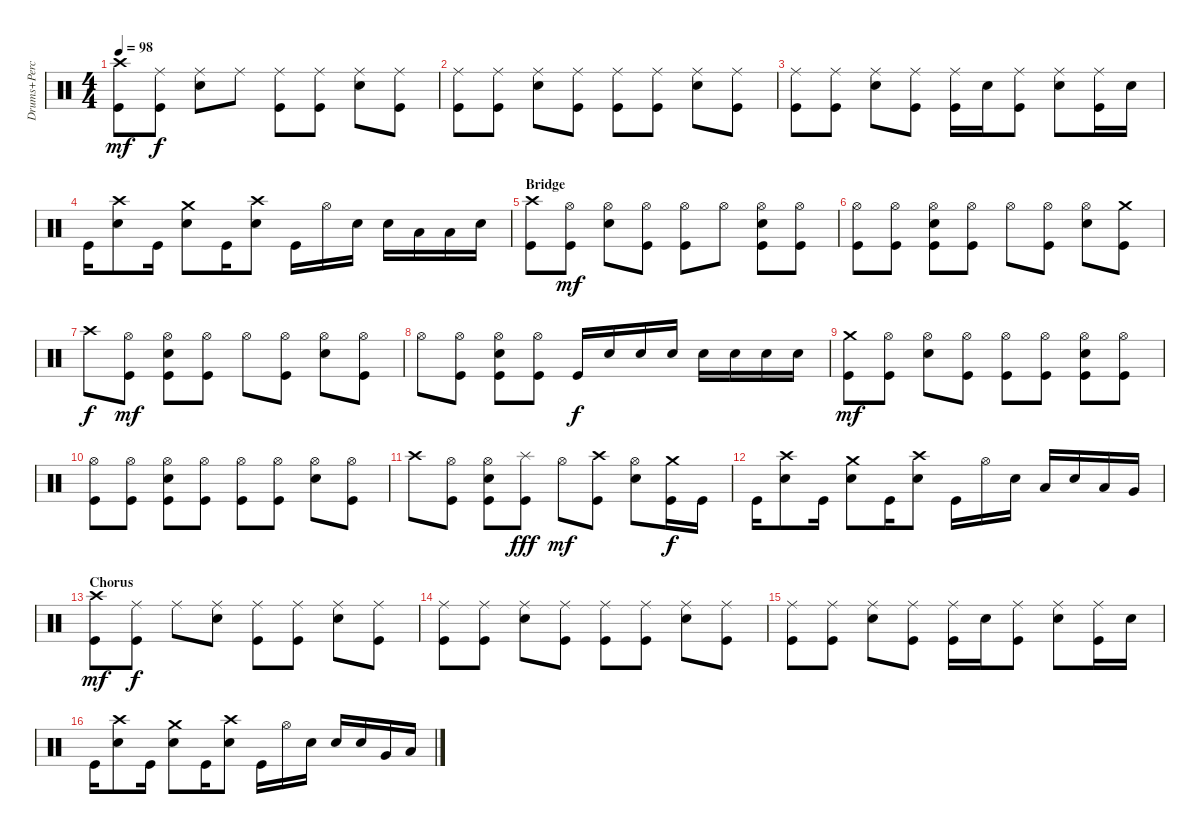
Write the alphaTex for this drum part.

\track ("Drums+Percussion" "Drums+Perc") {instrument percussion}
\staff {score}
\articulation defaults
\ts (4 4)
\tempo 98
\clef neutral
\ks c
("Kick (hit)" "Crash high (hit)").8{dy mf} ("Kick (hit)" "Ride (middle)").8{dy f} ("Snare (hit) 2" "Ride (middle)").8 "Ride (middle)".8 ("Kick (hit)" "Ride (middle)").8 ("Kick (hit)" "Ride (middle)").8 ("Snare (hit) 2" "Ride (middle)").8 ("Kick (hit)" "Ride (middle)").8 |
("Kick (hit)" "Ride (middle)").8 ("Kick (hit)" "Ride (middle)").8 ("Snare (hit) 2" "Ride (middle)").8 ("Kick (hit)" "Ride (middle)").8 ("Kick (hit)" "Ride (middle)").8 ("Kick (hit)" "Ride (middle)").8 ("Snare (hit) 2" "Ride (middle)").8 ("Kick (hit)" "Ride (middle)").8 |
("Kick (hit)" "Ride (middle)").8 ("Kick (hit)" "Ride (middle)").8 ("Snare (hit) 2" "Ride (middle)").8 ("Kick (hit)" "Ride (middle)").8 ("Kick (hit)" "Ride (middle)").16 "Snare (hit) 2".16 ("Kick (hit)" "Ride (middle)").8 ("Snare (hit) 2" "Ride (middle)").8 ("Kick (hit)" "Ride (middle)").16 "Snare (hit) 2".16 |
"Kick (hit)".16 ("Snare (hit) 2" "Crash high (hit)").8 "Kick (hit)".16 ("Snare (hit) 2" "Crash medium (hit)").8 "Kick (hit)".16 ("Snare (hit) 2" "Crash high (hit)").8 "Kick (hit)".16 "Hi-Hat (open)".16 "Snare (hit) 2".16 "Snare (hit) 2".16 "Low Tom (hit)".16 "Low Tom (hit)".16 "Snare (hit) 2".16 |
\section ("" "Bridge")
("Kick (hit)" "Crash high (hit)").8 ("Kick (hit)" "Hi-Hat (open)").8{dy mf} ("Snare (hit) 2" "Hi-Hat (open)").8 ("Kick (hit)" "Hi-Hat (open)").8 ("Kick (hit)" "Hi-Hat (open)").8 "Hi-Hat (open)".8 ("Kick (hit)" "Snare (hit) 2" "Hi-Hat (open)").8 ("Kick (hit)" "Hi-Hat (open)").8 |
("Kick (hit)" "Hi-Hat (open)").8 ("Kick (hit)" "Hi-Hat (open)").8 ("Kick (hit)" "Snare (hit) 2" "Hi-Hat (open)").8 ("Kick (hit)" "Hi-Hat (open)").8 "Hi-Hat (open)".8 ("Kick (hit)" "Hi-Hat (open)").8 ("Snare (hit) 2" "Hi-Hat (open)").8 ("Kick (hit)" "Crash medium (hit)").8 |
"Crash high (hit)".8{dy f} ("Kick (hit)" "Hi-Hat (open)").8{dy mf} ("Kick (hit)" "Snare (hit) 2" "Hi-Hat (open)").8 ("Kick (hit)" "Hi-Hat (open)").8 "Hi-Hat (open)".8 ("Kick (hit)" "Hi-Hat (open)").8 ("Snare (hit) 2" "Hi-Hat (open)").8 ("Kick (hit)" "Hi-Hat (open)").8 |
"Hi-Hat (open)".8 ("Kick (hit)" "Hi-Hat (open)").8 ("Kick (hit)" "Snare (hit) 2" "Hi-Hat (open)").8 ("Kick (hit)" "Hi-Hat (open)").8 "Kick (hit)".16{dy f} "Snare (hit) 2".16 "Snare (hit) 2".16 "Snare (hit) 2".16 "Snare (hit) 2".16 "Snare (hit) 2".16 "Snare (hit) 2".16 "Snare (hit) 2".16 |
("Kick (hit)" "Crash medium (hit)").8{dy mf} ("Kick (hit)" "Hi-Hat (open)").8 ("Snare (hit) 2" "Hi-Hat (open)").8 ("Kick (hit)" "Hi-Hat (open)").8 ("Kick (hit)" "Hi-Hat (open)").8 ("Kick (hit)" "Hi-Hat (open)").8 ("Kick (hit)" "Snare (hit) 2" "Hi-Hat (open)").8 ("Kick (hit)" "Hi-Hat (open)").8 |
("Kick (hit)" "Hi-Hat (open)").8 ("Kick (hit)" "Hi-Hat (open)").8 ("Kick (hit)" "Snare (hit) 2" "Hi-Hat (open)").8 ("Kick (hit)" "Hi-Hat (open)").8 ("Kick (hit)" "Hi-Hat (open)").8 ("Kick (hit)" "Hi-Hat (open)").8 ("Snare (hit) 2" "Hi-Hat (open)").8 ("Kick (hit)" "Hi-Hat (open)").8 |
"Crash high (hit)".8 ("Kick (hit)" "Hi-Hat (open)").8 ("Kick (hit)" "Snare (hit) 2" "Hi-Hat (open)").8 ("Kick (hit)" "Splash (hit)").8{dy fff} "Hi-Hat (open)".8{dy mf} ("Kick (hit)" "Crash high (hit)").8 ("Snare (hit) 2" "Hi-Hat (open)").8 ("Kick (hit)" "Crash medium (hit)").16{dy f} "Kick (hit)".16 |
"Kick (hit)".16 ("Snare (hit) 2" "Crash high (hit)").8 "Kick (hit)".16 ("Snare (hit) 2" "Crash medium (hit)").8 "Kick (hit)".16 ("Snare (hit) 2" "Crash high (hit)").8 "Kick (hit)".16 "Hi-Hat (open)".16 "Snare (hit) 2".16 "Low Tom (hit)".16 "Snare (hit) 2".16 "Low Tom (hit)".16 "Very Low Tom (hit)".16 |
\section ("" "Chorus")
("Kick (hit)" "Crash high (hit)").8{dy mf} ("Kick (hit)" "Ride (middle)").8{dy f} "Ride (middle)".8 ("Snare (hit) 2" "Ride (middle)").8 ("Kick (hit)" "Ride (middle)").8 ("Kick (hit)" "Ride (middle)").8 ("Snare (hit) 2" "Ride (middle)").8 ("Kick (hit)" "Ride (middle)").8 |
("Kick (hit)" "Ride (middle)").8 ("Kick (hit)" "Ride (middle)").8 ("Snare (hit) 2" "Ride (middle)").8 ("Kick (hit)" "Ride (middle)").8 ("Kick (hit)" "Ride (middle)").8 ("Kick (hit)" "Ride (middle)").8 ("Snare (hit) 2" "Ride (middle)").8 ("Kick (hit)" "Ride (middle)").8 |
("Kick (hit)" "Ride (middle)").8 ("Kick (hit)" "Ride (middle)").8 ("Snare (hit) 2" "Ride (middle)").8 ("Kick (hit)" "Ride (middle)").8 ("Kick (hit)" "Ride (middle)").16 "Snare (hit) 2".16 ("Kick (hit)" "Ride (middle)").8 ("Snare (hit) 2" "Ride (middle)").8 ("Kick (hit)" "Ride (middle)").16 "Snare (hit) 2".16 |
"Kick (hit)".16 ("Snare (hit) 2" "Crash high (hit)").8 "Kick (hit)".16 ("Snare (hit) 2" "Crash medium (hit)").8 "Kick (hit)".16 ("Snare (hit) 2" "Crash high (hit)").8 "Kick (hit)".16 "Hi-Hat (open)".16 "Snare (hit) 2".16 "Snare (hit) 2".16 "Snare (hit) 2".16 "Very Low Tom (hit)".16 "Low Floor Tom (hit)".16
